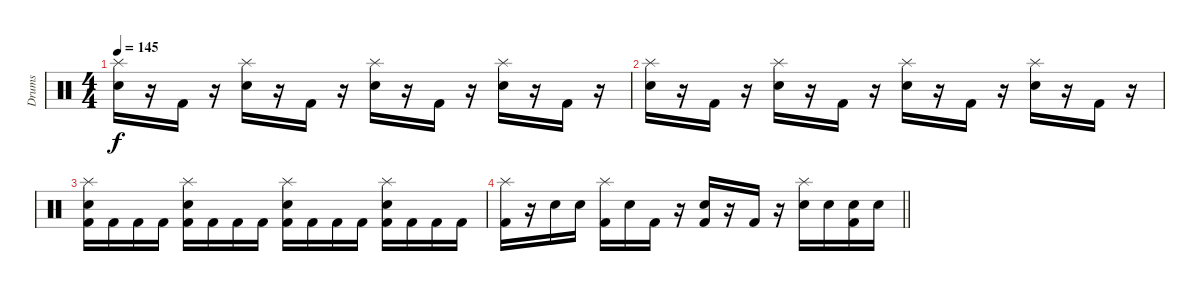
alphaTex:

\track ("Drums" "Drums") {instrument percussion}
\staff {score}
\articulation defaults
\ts (4 4)
\tempo 145
\clef neutral
\ks c
("Splash (hit)" "Electric Snare (hit)").16{dy f} r.16 "Kick (hit) 2".16 r.16 ("Splash (hit)" "Electric Snare (hit)").16 r.16 "Kick (hit) 2".16 r.16 ("Splash (hit)" "Electric Snare (hit)").16 r.16 "Kick (hit) 2".16 r.16 ("Splash (hit)" "Electric Snare (hit)").16 r.16 "Kick (hit) 2".16 r.16 |
("Splash (hit)" "Electric Snare (hit)").16 r.16 "Kick (hit) 2".16 r.16 ("Splash (hit)" "Electric Snare (hit)").16 r.16 "Kick (hit) 2".16 r.16 ("Splash (hit)" "Electric Snare (hit)").16 r.16 "Kick (hit) 2".16 r.16 ("Splash (hit)" "Electric Snare (hit)").16 r.16 "Kick (hit) 2".16 r.16 |
("Splash (hit)" "Electric Snare (hit)" "Kick (hit) 2").16 "Kick (hit) 2".16 "Kick (hit) 2".16 "Kick (hit) 2".16 ("Splash (hit)" "Electric Snare (hit)" "Kick (hit) 2").16 "Kick (hit) 2".16 "Kick (hit) 2".16 "Kick (hit) 2".16 ("Splash (hit)" "Electric Snare (hit)" "Kick (hit) 2").16 "Kick (hit) 2".16 "Kick (hit) 2".16 "Kick (hit) 2".16 ("Splash (hit)" "Electric Snare (hit)" "Kick (hit) 2").16 "Kick (hit) 2".16 "Kick (hit) 2".16 "Kick (hit) 2".16 |
\barLineRight lightlight
("Splash (hit)" "Kick (hit) 2").16 r.16 "Electric Snare (hit)".16 "Electric Snare (hit)".16 ("Splash (hit)" "Kick (hit) 2").16 "Electric Snare (hit)".16 "Kick (hit) 2".16 r.16 ("Electric Snare (hit)" "Kick (hit) 2").16 r.16 "Kick (hit) 2".16 r.16 ("Splash (hit)" "Electric Snare (hit)").16 "Electric Snare (hit)".16 ("Electric Snare (hit)" "Kick (hit) 2").16 "Electric Snare (hit)".16
